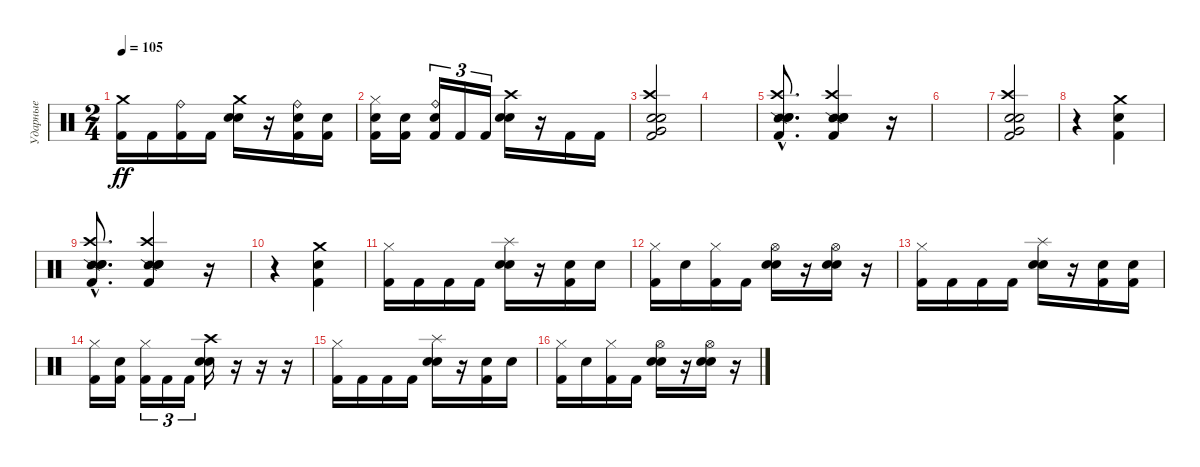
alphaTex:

\track ("Ударные" "Ударные") {instrument percussion}
\staff {score}
\articulation defaults
\ts (2 4)
\tempo 105
\clef neutral
\ks c
("Crash medium (hit)" "Kick (hit) 2").16{dy ff} "Kick (hit) 2".16 ("Ride (bell)" "Kick (hit) 2").16 "Kick (hit) 2".16 ("Crash medium (hit)" "Snare (hit) 2" "Electric Snare (hit)").16 r.16 ("Ride (bell)" "Kick (hit) 2" "Electric Snare (hit)").16 ("Kick (hit) 2" "Electric Snare (hit)").16 |
("Hi-Hat (closed)" "Kick (hit) 2" "Electric Snare (hit)").16 ("Kick (hit) 2" "Electric Snare (hit)").16 ("Ride (bell)" "Kick (hit) 2" "Electric Snare (hit)").16{tu (3 2)} "Kick (hit) 2".16{tu (3 2)} "Kick (hit) 2".16{tu (3 2)} ("Crash high (hit)" "Snare (hit) 2" "Electric Snare (hit)").16 r.16 "Kick (hit) 2".16 "Kick (hit) 2".16 |
("Crash high (hit)" "Very Low Tom (hit)" "Kick (hit) 2" "Snare (hit) 2" "Electric Snare (hit)").2 |
|
("Crash high (hit)"{hac} "Snare (side stick) 2"{hac} "Kick (hit) 2"{hac} "Snare (hit) 2"{hac} "Electric Snare (hit)"{hac}).8{d} ("Crash high (hit)" "Snare (side stick) 2" "Kick (hit) 2" "Snare (hit) 2" "Electric Snare (hit)").4 r.16 |
|
("Crash high (hit)" "Very Low Tom (hit)" "Kick (hit) 2" "Snare (hit) 2" "Electric Snare (hit)").2 |
r.4 ("Crash medium (hit)" "Kick (hit) 2" "Snare (hit) 2").4 |
("Crash high (hit)"{hac} "Snare (side stick) 2"{hac} "Kick (hit) 2"{hac} "Snare (hit) 2"{hac} "Electric Snare (hit)"{hac}).8{d} ("Crash high (hit)" "Snare (side stick) 2" "Kick (hit) 2" "Snare (hit) 2" "Electric Snare (hit)").4 r.16 |
r.4 ("Crash medium (hit)" "Kick (hit) 2" "Snare (hit) 2").4 |
("Hi-Hat (closed)" "Kick (hit) 2").16 "Kick (hit) 2".16 "Kick (hit) 2".16 "Kick (hit) 2".16 ("Splash (hit)" "Snare (hit) 2" "Electric Snare (hit)").16 r.16 ("Kick (hit) 2" "Electric Snare (hit)").16 "Electric Snare (hit)".16 |
("Hi-Hat (closed)" "Kick (hit) 2").16 "Electric Snare (hit)".16 ("Hi-Hat (closed)" "Kick (hit) 2").16 "Kick (hit) 2".16 ("Hi-Hat (open)" "Snare (hit) 2" "Electric Snare (hit)").16 r.16 ("Hi-Hat (open)" "Snare (hit) 2" "Electric Snare (hit)").16 r.16 |
("Hi-Hat (closed)" "Kick (hit) 2").16 "Kick (hit) 2".16 "Kick (hit) 2".16 "Kick (hit) 2".16 ("Splash (hit)" "Snare (hit) 2" "Electric Snare (hit)").16 r.16 ("Kick (hit) 2" "Electric Snare (hit)").16 ("Kick (hit) 2" "Electric Snare (hit)").16 |
("Hi-Hat (closed)" "Kick (hit) 2").16 ("Kick (hit) 2" "Electric Snare (hit)").16 ("Hi-Hat (closed)" "Kick (hit) 2").16{tu (3 2)} "Kick (hit) 2".16{tu (3 2)} "Kick (hit) 2".16{tu (3 2)} ("Crash high (hit)" "Snare (hit) 2" "Electric Snare (hit)").16 r.16 r.16 r.16 |
("Hi-Hat (closed)" "Kick (hit) 2").16 "Kick (hit) 2".16 "Kick (hit) 2".16 "Kick (hit) 2".16 ("Splash (hit)" "Snare (hit) 2" "Electric Snare (hit)").16 r.16 ("Kick (hit) 2" "Electric Snare (hit)").16 "Electric Snare (hit)".16 |
("Hi-Hat (closed)" "Kick (hit) 2").16 "Electric Snare (hit)".16 ("Hi-Hat (closed)" "Kick (hit) 2").16 "Kick (hit) 2".16 ("Hi-Hat (open)" "Snare (hit) 2" "Electric Snare (hit)").16 r.16 ("Hi-Hat (open)" "Snare (hit) 2" "Electric Snare (hit)").16 r.16
